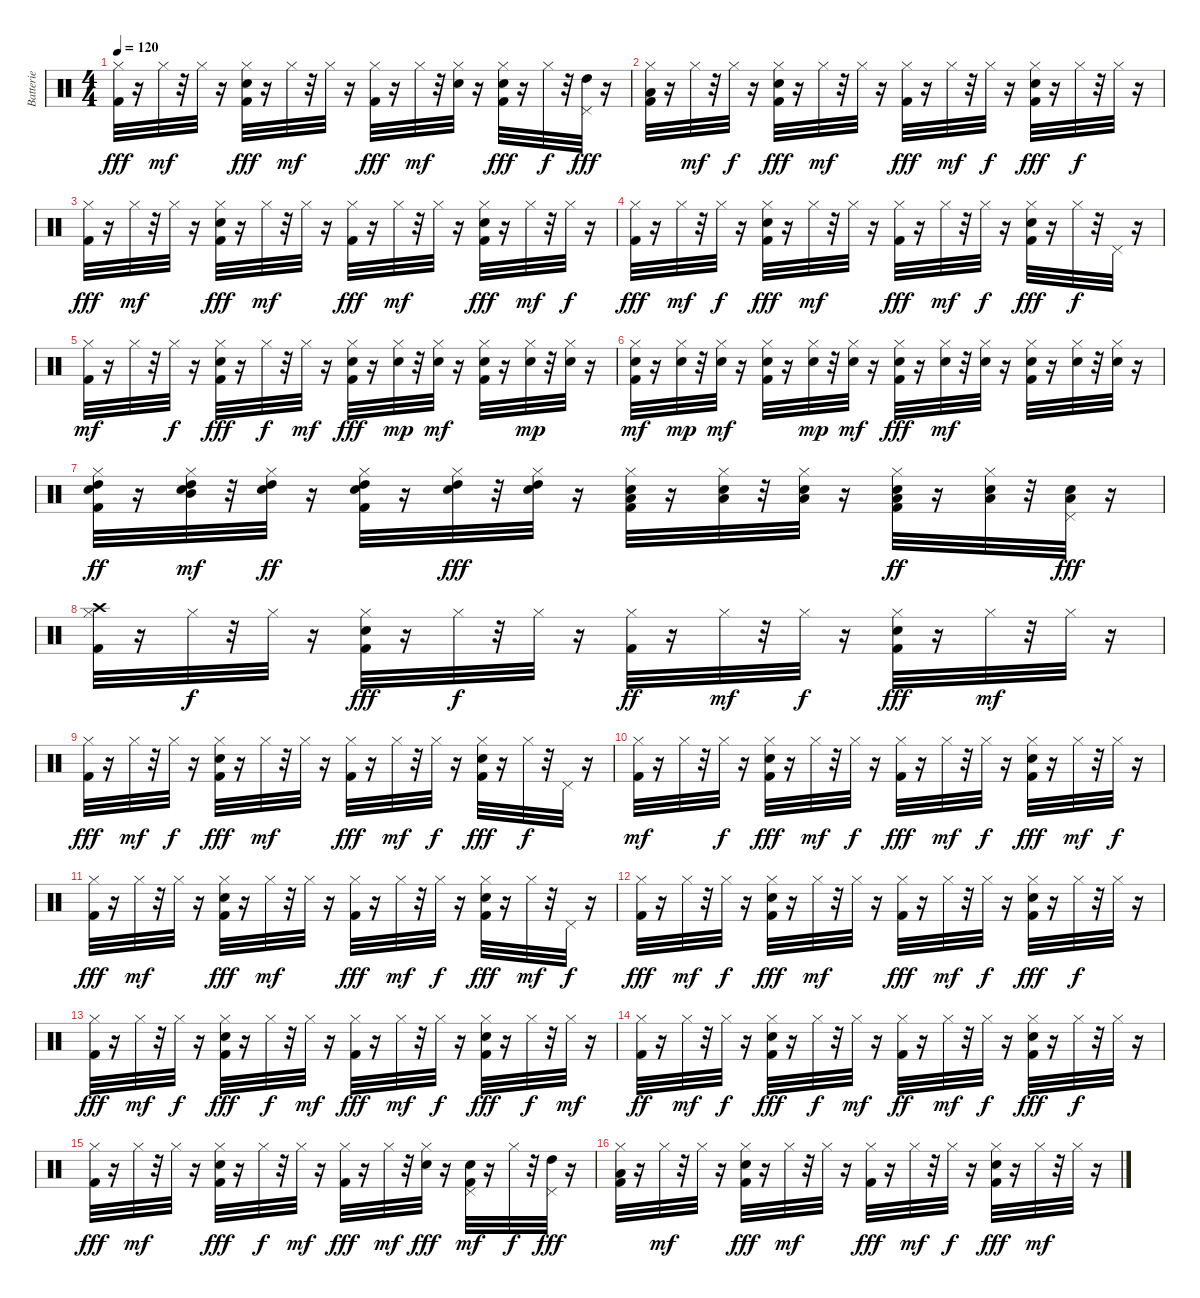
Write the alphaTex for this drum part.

\track ("Batterie" "Batterie") {instrument percussion}
\staff {score}
\articulation defaults
\ts (4 4)
\tempo 120
\clef neutral
\ks c
("Kick (hit) 2" "Hi-Hat (closed)").32{dy fff} r.16 "Hi-Hat (closed)".32{dy mf} r.32 "Hi-Hat (closed)".32 r.16 ("Kick (hit) 2" "Snare (hit) 2" "Hi-Hat (closed)").32{dy fff} r.16 "Hi-Hat (closed)".32{dy mf} r.32 "Hi-Hat (closed)".32 r.16 ("Kick (hit) 2" "Hi-Hat (closed)").32{dy fff} r.16 "Hi-Hat (closed)".32{dy mf} r.32 ("Snare (hit) 2" "Hi-Hat (closed)").32 r.16 ("Kick (hit) 2" "Snare (hit) 2" "Hi-Hat (closed)").32{dy fff} r.16 "Hi-Hat (closed)".32{dy f} r.32 ("Pedal Hi-Hat (hit)" "High Tom (hit)").32{dy fff} r.16 |
("Kick (hit) 2" "Hi-Hat (closed)" "Low Floor Tom (hit)").32 r.16 "Hi-Hat (closed)".32{dy mf} r.32 "Hi-Hat (closed)".32{dy f} r.16 ("Kick (hit) 2" "Snare (hit) 2" "Hi-Hat (closed)").32{dy fff} r.16 "Hi-Hat (closed)".32{dy mf} r.32 "Hi-Hat (closed)".32 r.16 ("Kick (hit) 2" "Hi-Hat (closed)").32{dy fff} r.16 "Hi-Hat (closed)".32{dy mf} r.32 "Hi-Hat (closed)".32{dy f} r.16 ("Kick (hit) 2" "Snare (hit) 2" "Hi-Hat (closed)").32{dy fff} r.16 "Hi-Hat (closed)".32{dy f} r.32 "Hi-Hat (closed)".32 r.16 |
("Kick (hit) 2" "Hi-Hat (closed)").32{dy fff} r.16 "Hi-Hat (closed)".32{dy mf} r.32 "Hi-Hat (closed)".32 r.16 ("Kick (hit) 2" "Snare (hit) 2" "Hi-Hat (closed)").32{dy fff} r.16 "Hi-Hat (closed)".32{dy mf} r.32 "Hi-Hat (closed)".32 r.16 ("Kick (hit) 2" "Hi-Hat (closed)").32{dy fff} r.16 "Hi-Hat (closed)".32{dy mf} r.32 "Hi-Hat (closed)".32 r.16 ("Kick (hit) 2" "Snare (hit) 2" "Hi-Hat (closed)").32{dy fff} r.16 "Hi-Hat (closed)".32{dy mf} r.32 "Hi-Hat (closed)".32{dy f} r.16 |
("Kick (hit) 2" "Hi-Hat (closed)").32{dy fff} r.16 "Hi-Hat (closed)".32{dy mf} r.32 "Hi-Hat (closed)".32{dy f} r.16 ("Kick (hit) 2" "Snare (hit) 2" "Hi-Hat (closed)").32{dy fff} r.16 "Hi-Hat (closed)".32{dy mf} r.32 "Hi-Hat (closed)".32 r.16 ("Kick (hit) 2" "Hi-Hat (closed)").32{dy fff} r.16 "Hi-Hat (closed)".32{dy mf} r.32 "Hi-Hat (closed)".32{dy f} r.16 ("Kick (hit) 2" "Snare (hit) 2" "Hi-Hat (closed)").32{dy fff} r.16 "Hi-Hat (closed)".32{dy f} r.32 "Pedal Hi-Hat (hit)".32 r.16 |
("Kick (hit) 2" "Hi-Hat (closed)").32{dy mf} r.16 "Hi-Hat (closed)".32 r.32 "Hi-Hat (closed)".32{dy f} r.16 ("Kick (hit) 2" "Snare (hit) 2" "Hi-Hat (closed)").32{dy fff} r.16 "Hi-Hat (closed)".32{dy f} r.32 "Hi-Hat (closed)".32{dy mf} r.16 ("Kick (hit) 2" "Snare (hit) 2" "Hi-Hat (closed)").32{dy fff} r.16 ("Snare (hit) 2" "Hi-Hat (closed)").32{dy mp} r.32 ("Snare (hit) 2" "Hi-Hat (closed)").32{dy mf} r.16 ("Kick (hit) 2" "Snare (hit) 2" "Hi-Hat (closed)").32 r.16 ("Snare (hit) 2" "Hi-Hat (closed)").32{dy mp} r.32 ("Snare (hit) 2" "Hi-Hat (closed)").32 r.16 |
("Kick (hit) 2" "Snare (hit) 2" "Hi-Hat (closed)").32{dy mf} r.16 ("Snare (hit) 2" "Hi-Hat (closed)").32{dy mp} r.32 ("Snare (hit) 2" "Hi-Hat (closed)").32{dy mf} r.16 ("Kick (hit) 2" "Snare (hit) 2" "Hi-Hat (closed)").32 r.16 ("Snare (hit) 2" "Hi-Hat (closed)").32{dy mp} r.32 ("Snare (hit) 2" "Hi-Hat (closed)").32{dy mf} r.16 ("Kick (hit) 2" "Snare (hit) 2" "Hi-Hat (closed)").32{dy fff} r.16 ("Snare (hit) 2" "Hi-Hat (closed)").32{dy mf} r.32 ("Snare (hit) 2" "Hi-Hat (closed)").32 r.16 ("Kick (hit) 2" "Snare (hit) 2" "Hi-Hat (closed)").32 r.16 ("Snare (hit) 2" "Hi-Hat (closed)").32 r.32 ("Snare (hit) 2" "Hi-Hat (closed)").32 r.16 |
("Kick (hit) 2" "Snare (hit) 2" "Hi-Hat (closed)" "High Tom (hit)").32{dy ff} r.16 ("Snare (hit) 2" "Hi-Hat (closed)" "High Tom (hit)" "Mid Tom (hit)").32{dy mf} r.32 ("Snare (hit) 2" "Hi-Hat (closed)" "High Tom (hit)").32{dy ff} r.16 ("Kick (hit) 2" "Snare (hit) 2" "Hi-Hat (closed)" "High Tom (hit)").32 r.16 ("Snare (hit) 2" "Hi-Hat (closed)" "High Tom (hit)").32{dy fff} r.32 ("Snare (hit) 2" "Hi-Hat (closed)" "High Tom (hit)").32 r.16 ("Kick (hit) 2" "Snare (hit) 2" "Hi-Hat (closed)" "Low Tom (hit)").32 r.16 ("Snare (hit) 2" "Hi-Hat (closed)" "Low Tom (hit)").32 r.32 ("Snare (hit) 2" "Hi-Hat (closed)" "Low Tom (hit)").32 r.16 ("Kick (hit) 2" "Snare (hit) 2" "Hi-Hat (closed)" "Low Floor Tom (hit)").32{dy ff} r.16 ("Snare (hit) 2" "Hi-Hat (closed)" "Low Floor Tom (hit)").32 r.32 ("Snare (hit) 2" "Pedal Hi-Hat (hit)" "Low Floor Tom (hit)").32{dy fff} r.16 |
("Kick (hit) 2" "Hi-Hat (closed)" "Crash high (hit)").32 r.16 "Hi-Hat (closed)".32{dy f} r.32 "Hi-Hat (closed)".32 r.16 ("Kick (hit) 2" "Snare (hit) 2" "Hi-Hat (closed)").32{dy fff} r.16 "Hi-Hat (closed)".32{dy f} r.32 "Hi-Hat (closed)".32 r.16 ("Kick (hit) 2" "Hi-Hat (closed)").32{dy ff} r.16 "Hi-Hat (closed)".32{dy mf} r.32 "Hi-Hat (closed)".32{dy f} r.16 ("Kick (hit) 2" "Snare (hit) 2" "Hi-Hat (closed)").32{dy fff} r.16 "Hi-Hat (closed)".32{dy mf} r.32 "Hi-Hat (closed)".32 r.16 |
("Kick (hit) 2" "Hi-Hat (closed)").32{dy fff} r.16 "Hi-Hat (closed)".32{dy mf} r.32 "Hi-Hat (closed)".32{dy f} r.16 ("Kick (hit) 2" "Snare (hit) 2" "Hi-Hat (closed)").32{dy fff} r.16 "Hi-Hat (closed)".32{dy mf} r.32 "Hi-Hat (closed)".32 r.16 ("Kick (hit) 2" "Hi-Hat (closed)").32{dy fff} r.16 "Hi-Hat (closed)".32{dy mf} r.32 "Hi-Hat (closed)".32{dy f} r.16 ("Kick (hit) 2" "Snare (hit) 2" "Hi-Hat (closed)").32{dy fff} r.16 "Hi-Hat (closed)".32{dy f} r.32 "Pedal Hi-Hat (hit)".32 r.16 |
("Kick (hit) 2" "Hi-Hat (closed)").32{dy mf} r.16 "Hi-Hat (closed)".32 r.32 "Hi-Hat (closed)".32{dy f} r.16 ("Kick (hit) 2" "Snare (hit) 2" "Hi-Hat (closed)").32{dy fff} r.16 "Hi-Hat (closed)".32{dy mf} r.32 "Hi-Hat (closed)".32{dy f} r.16 ("Kick (hit) 2" "Hi-Hat (closed)").32{dy fff} r.16 "Hi-Hat (closed)".32{dy mf} r.32 "Hi-Hat (closed)".32{dy f} r.16 ("Kick (hit) 2" "Snare (hit) 2" "Hi-Hat (closed)").32{dy fff} r.16 "Hi-Hat (closed)".32{dy mf} r.32 "Hi-Hat (closed)".32{dy f} r.16 |
("Kick (hit) 2" "Hi-Hat (closed)").32{dy fff} r.16 "Hi-Hat (closed)".32{dy mf} r.32 "Hi-Hat (closed)".32 r.16 ("Kick (hit) 2" "Snare (hit) 2" "Hi-Hat (closed)").32{dy fff} r.16 "Hi-Hat (closed)".32{dy mf} r.32 "Hi-Hat (closed)".32 r.16 ("Kick (hit) 2" "Hi-Hat (closed)").32{dy fff} r.16 "Hi-Hat (closed)".32{dy mf} r.32 "Hi-Hat (closed)".32{dy f} r.16 ("Kick (hit) 2" "Snare (hit) 2" "Hi-Hat (closed)").32{dy fff} r.16 "Hi-Hat (closed)".32{dy mf} r.32 "Pedal Hi-Hat (hit)".32{dy f} r.16 |
("Kick (hit) 2" "Hi-Hat (closed)").32{dy fff} r.16 "Hi-Hat (closed)".32{dy mf} r.32 "Hi-Hat (closed)".32{dy f} r.16 ("Kick (hit) 2" "Snare (hit) 2" "Hi-Hat (closed)").32{dy fff} r.16 "Hi-Hat (closed)".32{dy mf} r.32 "Hi-Hat (closed)".32 r.16 ("Kick (hit) 2" "Hi-Hat (closed)").32{dy fff} r.16 "Hi-Hat (closed)".32{dy mf} r.32 "Hi-Hat (closed)".32{dy f} r.16 ("Kick (hit) 2" "Snare (hit) 2" "Hi-Hat (closed)").32{dy fff} r.16 "Hi-Hat (closed)".32{dy f} r.32 "Hi-Hat (closed)".32 r.16 |
("Kick (hit) 2" "Hi-Hat (closed)").32{dy fff} r.16 "Hi-Hat (closed)".32{dy mf} r.32 "Hi-Hat (closed)".32{dy f} r.16 ("Kick (hit) 2" "Snare (hit) 2" "Hi-Hat (closed)").32{dy fff} r.16 "Hi-Hat (closed)".32{dy f} r.32 "Hi-Hat (closed)".32{dy mf} r.16 ("Kick (hit) 2" "Hi-Hat (closed)").32{dy fff} r.16 "Hi-Hat (closed)".32{dy mf} r.32 "Hi-Hat (closed)".32{dy f} r.16 ("Kick (hit) 2" "Snare (hit) 2" "Hi-Hat (closed)").32{dy fff} r.16 "Hi-Hat (closed)".32{dy f} r.32 "Hi-Hat (closed)".32{dy mf} r.16 |
("Kick (hit) 2" "Hi-Hat (closed)").32{dy ff} r.16 "Hi-Hat (closed)".32{dy mf} r.32 "Hi-Hat (closed)".32{dy f} r.16 ("Kick (hit) 2" "Snare (hit) 2" "Hi-Hat (closed)").32{dy fff} r.16 "Hi-Hat (closed)".32{dy f} r.32 "Hi-Hat (closed)".32{dy mf} r.16 ("Kick (hit) 2" "Hi-Hat (closed)").32{dy ff} r.16 "Hi-Hat (closed)".32{dy mf} r.32 "Hi-Hat (closed)".32{dy f} r.16 ("Kick (hit) 2" "Snare (hit) 2" "Hi-Hat (closed)").32{dy fff} r.16 "Hi-Hat (closed)".32{dy f} r.32 "Hi-Hat (closed)".32 r.16 |
("Kick (hit) 2" "Hi-Hat (closed)").32{dy fff} r.16 "Hi-Hat (closed)".32{dy mf} r.32 "Hi-Hat (closed)".32 r.16 ("Kick (hit) 2" "Snare (hit) 2" "Hi-Hat (closed)").32{dy fff} r.16 "Hi-Hat (closed)".32{dy f} r.32 "Hi-Hat (closed)".32{dy mf} r.16 ("Kick (hit) 2" "Hi-Hat (closed)").32{dy fff} r.16 "Hi-Hat (closed)".32{dy mf} r.32 ("Snare (hit) 2" "Hi-Hat (closed)").32{dy fff} r.16 ("Kick (hit) 2" "Snare (hit) 2" "Pedal Hi-Hat (hit)").32{dy mf} r.16 "Hi-Hat (closed)".32{dy f} r.32 ("Pedal Hi-Hat (hit)" "High Tom (hit)").32{dy fff} r.16 |
("Kick (hit) 2" "Hi-Hat (closed)" "Low Floor Tom (hit)").32 r.16 "Hi-Hat (closed)".32{dy mf} r.32 "Hi-Hat (closed)".32 r.16 ("Kick (hit) 2" "Snare (hit) 2" "Hi-Hat (closed)").32{dy fff} r.16 "Hi-Hat (closed)".32{dy mf} r.32 "Hi-Hat (closed)".32 r.16 ("Kick (hit) 2" "Hi-Hat (closed)").32{dy fff} r.16 "Hi-Hat (closed)".32{dy mf} r.32 "Hi-Hat (closed)".32{dy f} r.16 ("Kick (hit) 2" "Snare (hit) 2" "Hi-Hat (closed)").32{dy fff} r.16 "Hi-Hat (closed)".32{dy mf} r.32 "Hi-Hat (closed)".32 r.16
